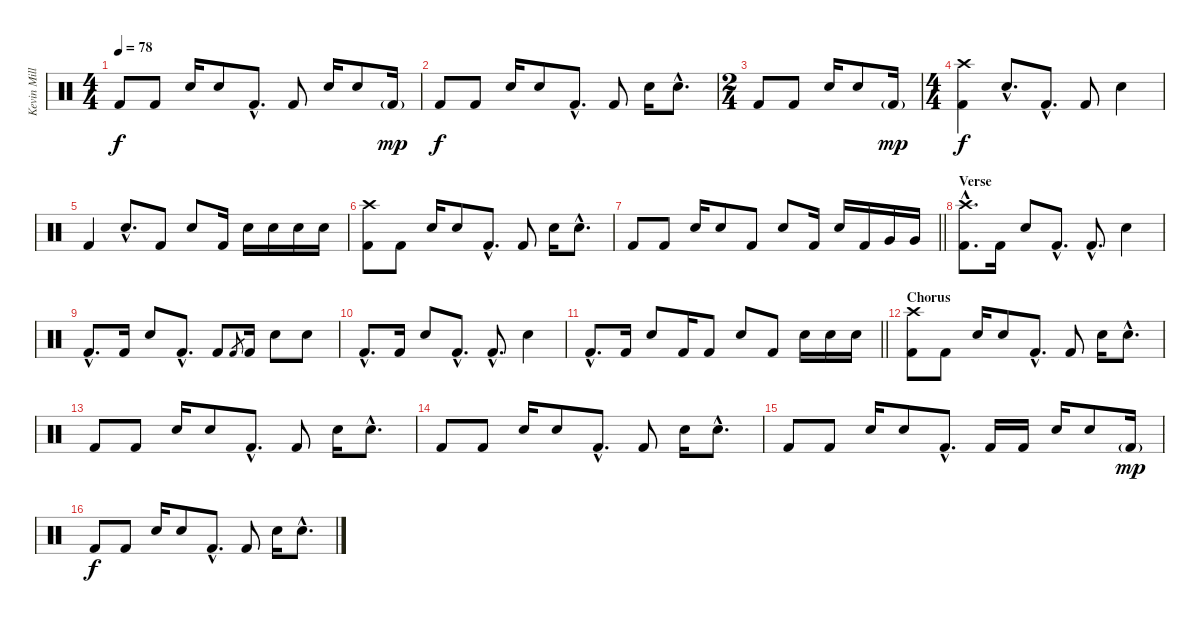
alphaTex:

\track ("Kevin Miller (Drums)" "Kevin Mill") {instrument percussion}
\staff {score}
\articulation defaults
\ts (4 4)
\tempo 78
\clef neutral
\ks c "Kick (hit) 2".8{dy f} "Kick (hit) 2".8 "Electric Snare (hit)".16 "Electric Snare (hit)".8 "Kick (hit) 2"{hac}.8{d} "Kick (hit) 2".8 "Electric Snare (hit)".16 "Electric Snare (hit)".8 "Kick (hit) 2"{g}.16{dy mp}
|
"Kick (hit) 2".8{dy f} "Kick (hit) 2".8 "Electric Snare (hit)".16 "Electric Snare (hit)".8 "Kick (hit) 2"{hac}.8{d} "Kick (hit) 2".8 "Electric Snare (hit)".16 "Electric Snare (hit)"{hac}.8{d} |
\ts (2 4)
"Kick (hit) 2".8 "Kick (hit) 2".8 "Electric Snare (hit)".16 "Electric Snare (hit)".8 "Kick (hit) 2"{g}.16{dy mp} |
\ts (4 4)
("Crash high (hit)" "Kick (hit) 2").4{dy f} "Electric Snare (hit)"{hac}.8{d} "Kick (hit) 2"{hac}.8{d} "Kick (hit) 2".8 "Electric Snare (hit)".4 |
"Kick (hit) 2".4 "Electric Snare (hit)"{hac}.8{d} "Kick (hit) 2".8 "Electric Snare (hit)".8 "Kick (hit) 2".16 "Electric Snare (hit)".16 "Electric Snare (hit)".16 "Electric Snare (hit)".16 "Electric Snare (hit)".16 |
("Crash high (hit)" "Kick (hit) 2").8 "Kick (hit) 2".8 "Electric Snare (hit)".16 "Electric Snare (hit)".8 "Kick (hit) 2"{hac}.8{d} "Kick (hit) 2".8 "Electric Snare (hit)".16 "Electric Snare (hit)"{hac}.8{d} |
\barLineRight lightlight "Kick (hit) 2".8 "Kick (hit) 2".8 "Electric Snare (hit)".16 "Electric Snare (hit)".8 "Kick (hit) 2".8 "Electric Snare (hit)".8 "Kick (hit) 2".16 "Electric Snare (hit)".16 "Kick (hit) 2".16 "Very Low Tom (hit)".16 "Very Low Tom (hit)".16
|
\section ("" "Verse")
("Crash high (hit)"{hac} "Kick (hit) 2"{hac}).8{d} "Kick (hit) 2".16 "Electric Snare (hit)".8 "Kick (hit) 2"{hac}.8{d} "Kick (hit) 2"{hac}.8{d} "Electric Snare (hit)".4 |
"Kick (hit) 2"{hac}.8{d} "Kick (hit) 2".16 "Electric Snare (hit)".8 "Kick (hit) 2"{hac}.8{d} "Kick (hit) 2".8 "Kick (hit) 2".8{gr} "Kick (hit) 2".16 "Electric Snare (hit)".8 "Electric Snare (hit)".8 |
"Kick (hit) 2"{hac}.8{d} "Kick (hit) 2".16 "Electric Snare (hit)".8 "Kick (hit) 2"{hac}.8{d} "Kick (hit) 2"{hac}.8{d} "Electric Snare (hit)".4 |
\barLineRight lightlight "Kick (hit) 2"{hac}.8{d} "Kick (hit) 2".16 "Electric Snare (hit)".8 "Kick (hit) 2".16 "Kick (hit) 2".8 "Electric Snare (hit)".8 "Kick (hit) 2".8 "Electric Snare (hit)".16 "Electric Snare (hit)".16 "Electric Snare (hit)".16
|
\section ("" "Chorus")
("Crash high (hit)" "Kick (hit) 2").8 "Kick (hit) 2".8 "Electric Snare (hit)".16 "Electric Snare (hit)".8 "Kick (hit) 2"{hac}.8{d} "Kick (hit) 2".8 "Electric Snare (hit)".16 "Electric Snare (hit)"{hac}.8{d} |
"Kick (hit) 2".8 "Kick (hit) 2".8 "Electric Snare (hit)".16 "Electric Snare (hit)".8 "Kick (hit) 2"{hac}.8{d} "Kick (hit) 2".8 "Electric Snare (hit)".16 "Electric Snare (hit)"{hac}.8{d} |
"Kick (hit) 2".8 "Kick (hit) 2".8 "Electric Snare (hit)".16 "Electric Snare (hit)".8 "Kick (hit) 2"{hac}.8{d} "Kick (hit) 2".8 "Electric Snare (hit)".16 "Electric Snare (hit)"{hac}.8{d} |
"Kick (hit) 2".8 "Kick (hit) 2".8 "Electric Snare (hit)".16 "Electric Snare (hit)".8 "Kick (hit) 2"{hac}.8{d} "Kick (hit) 2".16 "Kick (hit) 2".16 "Electric Snare (hit)".16 "Electric Snare (hit)".8 "Kick (hit) 2"{g}.16{dy mp} |
"Kick (hit) 2".8{dy f} "Kick (hit) 2".8 "Electric Snare (hit)".16 "Electric Snare (hit)".8 "Kick (hit) 2"{hac}.8{d} "Kick (hit) 2".8 "Electric Snare (hit)".16 "Electric Snare (hit)"{hac}.8{d}
